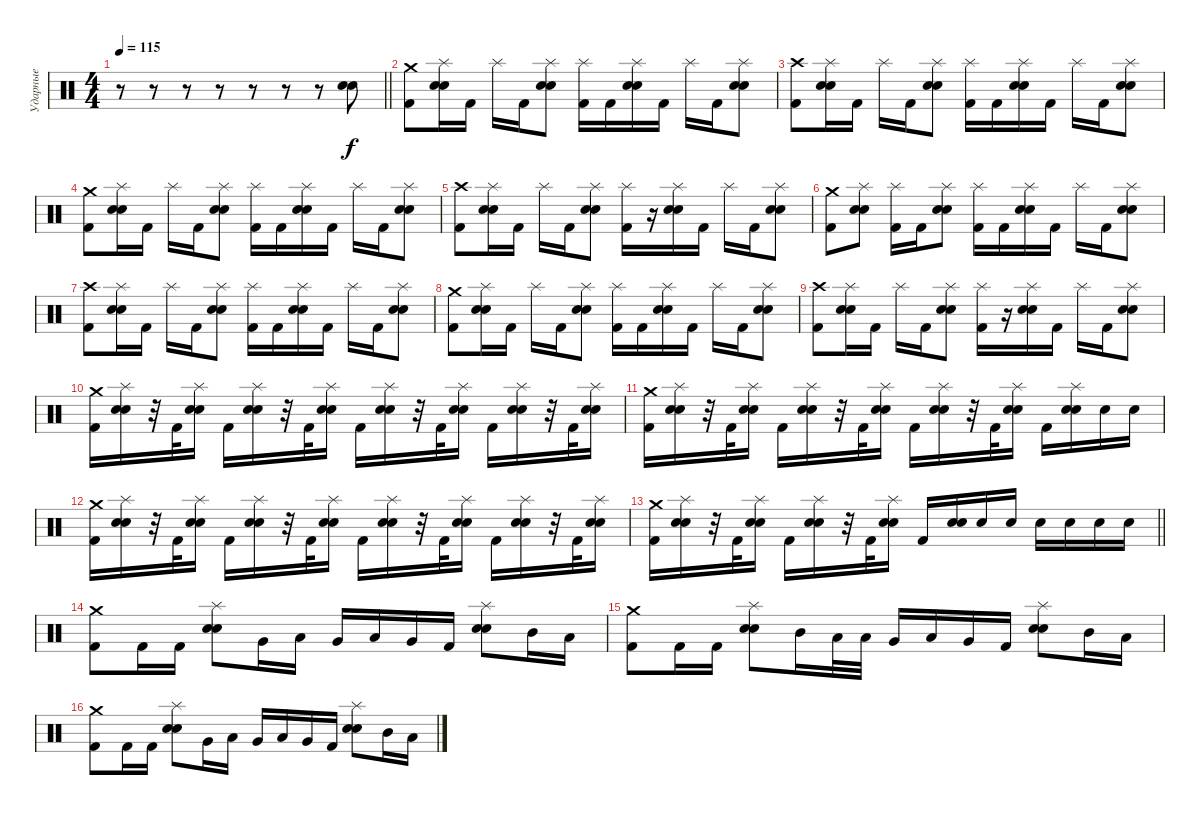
\track ("Ударные" "Ударные") {instrument percussion}
\staff {score}
\articulation defaults
\ts (4 4)
\tempo 115
\clef neutral
\barLineRight lightlight
\ks c
r.8{dy f} r.8 r.8 r.8 r.8 r.8 r.8 ("Electric Snare (hit)" "Snare (hit) 2").8 |
("Crash medium (hit)" "Kick (hit) 2").8 ("Splash (hit)" "Electric Snare (hit)" "Snare (hit) 2").16 "Kick (hit) 2".16 "Splash (hit)".16 "Kick (hit) 2".16 ("Splash (hit)" "Electric Snare (hit)" "Snare (hit) 2").8 ("Splash (hit)" "Kick (hit) 2").16 "Kick (hit) 2".16 ("Splash (hit)" "Electric Snare (hit)" "Snare (hit) 2").16 "Kick (hit) 2".16 "Splash (hit)".16 "Kick (hit) 2".16 ("Splash (hit)" "Electric Snare (hit)" "Snare (hit) 2").8 |
("Crash high (hit)" "Kick (hit) 2").8 ("Splash (hit)" "Electric Snare (hit)" "Snare (hit) 2").16 "Kick (hit) 2".16 "Splash (hit)".16 "Kick (hit) 2".16 ("Splash (hit)" "Electric Snare (hit)" "Snare (hit) 2").8 ("Splash (hit)" "Kick (hit) 2").16 "Kick (hit) 2".16 ("Splash (hit)" "Electric Snare (hit)" "Snare (hit) 2").16 "Kick (hit) 2".16 "Splash (hit)".16 "Kick (hit) 2".16 ("Splash (hit)" "Electric Snare (hit)" "Snare (hit) 2").8 |
("Crash medium (hit)" "Kick (hit) 2").8 ("Splash (hit)" "Electric Snare (hit)" "Snare (hit) 2").16 "Kick (hit) 2".16 "Splash (hit)".16 "Kick (hit) 2".16 ("Splash (hit)" "Electric Snare (hit)" "Snare (hit) 2").8 ("Splash (hit)" "Kick (hit) 2").16 "Kick (hit) 2".16 ("Splash (hit)" "Electric Snare (hit)" "Snare (hit) 2").16 "Kick (hit) 2".16 "Splash (hit)".16 "Kick (hit) 2".16 ("Splash (hit)" "Electric Snare (hit)" "Snare (hit) 2").8 |
("Crash high (hit)" "Kick (hit) 2").8 ("Splash (hit)" "Electric Snare (hit)" "Snare (hit) 2").16 "Kick (hit) 2".16 "Splash (hit)".16 "Kick (hit) 2".16 ("Splash (hit)" "Electric Snare (hit)" "Snare (hit) 2").8 ("Splash (hit)" "Kick (hit) 2").16 r.16 ("Splash (hit)" "Electric Snare (hit)" "Snare (hit) 2").16 "Kick (hit) 2".16 "Splash (hit)".16 "Kick (hit) 2".16 ("Splash (hit)" "Electric Snare (hit)" "Snare (hit) 2").8 |
("Crash medium (hit)" "Kick (hit) 2").8 ("Splash (hit)" "Electric Snare (hit)" "Snare (hit) 2").8 ("Splash (hit)" "Kick (hit) 2").16 "Kick (hit) 2".16 ("Splash (hit)" "Electric Snare (hit)" "Snare (hit) 2").8 ("Splash (hit)" "Kick (hit) 2").16 "Kick (hit) 2".16 ("Splash (hit)" "Electric Snare (hit)" "Snare (hit) 2").16 "Kick (hit) 2".16 "Splash (hit)".16 "Kick (hit) 2".16 ("Splash (hit)" "Electric Snare (hit)" "Snare (hit) 2").8 |
("Crash high (hit)" "Kick (hit) 2").8 ("Splash (hit)" "Electric Snare (hit)" "Snare (hit) 2").16 "Kick (hit) 2".16 "Splash (hit)".16 "Kick (hit) 2".16 ("Splash (hit)" "Electric Snare (hit)" "Snare (hit) 2").8 ("Splash (hit)" "Kick (hit) 2").16 "Kick (hit) 2".16 ("Splash (hit)" "Electric Snare (hit)" "Snare (hit) 2").16 "Kick (hit) 2".16 "Splash (hit)".16 "Kick (hit) 2".16 ("Splash (hit)" "Electric Snare (hit)" "Snare (hit) 2").8 |
("Crash medium (hit)" "Kick (hit) 2").8 ("Splash (hit)" "Electric Snare (hit)" "Snare (hit) 2").16 "Kick (hit) 2".16 "Splash (hit)".16 "Kick (hit) 2".16 ("Splash (hit)" "Electric Snare (hit)" "Snare (hit) 2").8 ("Splash (hit)" "Kick (hit) 2").16 "Kick (hit) 2".16 ("Splash (hit)" "Electric Snare (hit)" "Snare (hit) 2").16 "Kick (hit) 2".16 "Splash (hit)".16 "Kick (hit) 2".16 ("Splash (hit)" "Electric Snare (hit)" "Snare (hit) 2").8 |
("Crash high (hit)" "Kick (hit) 2").8 ("Splash (hit)" "Electric Snare (hit)" "Snare (hit) 2").16 "Kick (hit) 2".16 "Splash (hit)".16 "Kick (hit) 2".16 ("Splash (hit)" "Electric Snare (hit)" "Snare (hit) 2").8 ("Splash (hit)" "Kick (hit) 2").16 r.16 ("Splash (hit)" "Electric Snare (hit)" "Snare (hit) 2").16 "Kick (hit) 2".16 "Splash (hit)".16 "Kick (hit) 2".16 ("Splash (hit)" "Electric Snare (hit)" "Snare (hit) 2").8 |
("Crash medium (hit)" "Kick (hit) 2").16 ("Splash (hit)" "Electric Snare (hit)" "Snare (hit) 2").16 r.32 "Kick (hit) 2".32 ("Splash (hit)" "Electric Snare (hit)" "Snare (hit) 2").16 "Kick (hit) 2".16 ("Splash (hit)" "Electric Snare (hit)" "Snare (hit) 2").16 r.32 "Kick (hit) 2".32 ("Splash (hit)" "Electric Snare (hit)" "Snare (hit) 2").16 "Kick (hit) 2".16 ("Splash (hit)" "Electric Snare (hit)" "Snare (hit) 2").16 r.32 "Kick (hit) 2".32 ("Splash (hit)" "Electric Snare (hit)" "Snare (hit) 2").16 "Kick (hit) 2".16 ("Splash (hit)" "Electric Snare (hit)" "Snare (hit) 2").16 r.32 "Kick (hit) 2".32 ("Splash (hit)" "Electric Snare (hit)" "Snare (hit) 2").16 |
("Crash medium (hit)" "Kick (hit) 2").16 ("Splash (hit)" "Electric Snare (hit)" "Snare (hit) 2").16 r.32 "Kick (hit) 2".32 ("Splash (hit)" "Electric Snare (hit)" "Snare (hit) 2").16 "Kick (hit) 2".16 ("Splash (hit)" "Electric Snare (hit)" "Snare (hit) 2").16 r.32 "Kick (hit) 2".32 ("Splash (hit)" "Electric Snare (hit)" "Snare (hit) 2").16 "Kick (hit) 2".16 ("Splash (hit)" "Electric Snare (hit)" "Snare (hit) 2").16 r.32 "Kick (hit) 2".32 ("Splash (hit)" "Electric Snare (hit)" "Snare (hit) 2").16 "Kick (hit) 2".16 ("Splash (hit)" "Electric Snare (hit)" "Snare (hit) 2").16 "Electric Snare (hit)".16 "Electric Snare (hit)".16 |
("Crash medium (hit)" "Kick (hit) 2").16 ("Splash (hit)" "Electric Snare (hit)" "Snare (hit) 2").16 r.32 "Kick (hit) 2".32 ("Splash (hit)" "Electric Snare (hit)" "Snare (hit) 2").16 "Kick (hit) 2".16 ("Splash (hit)" "Electric Snare (hit)" "Snare (hit) 2").16 r.32 "Kick (hit) 2".32 ("Splash (hit)" "Electric Snare (hit)" "Snare (hit) 2").16 "Kick (hit) 2".16 ("Splash (hit)" "Electric Snare (hit)" "Snare (hit) 2").16 r.32 "Kick (hit) 2".32 ("Splash (hit)" "Electric Snare (hit)" "Snare (hit) 2").16 "Kick (hit) 2".16 ("Splash (hit)" "Electric Snare (hit)" "Snare (hit) 2").16 r.32 "Kick (hit) 2".32 ("Splash (hit)" "Electric Snare (hit)" "Snare (hit) 2").16 |
\barLineRight lightlight
("Crash medium (hit)" "Kick (hit) 2").16 ("Splash (hit)" "Electric Snare (hit)" "Snare (hit) 2").16 r.32 "Kick (hit) 2".32 ("Splash (hit)" "Electric Snare (hit)" "Snare (hit) 2").16 "Kick (hit) 2".16 ("Splash (hit)" "Electric Snare (hit)" "Snare (hit) 2").16 r.32 "Kick (hit) 2".32 ("Splash (hit)" "Electric Snare (hit)" "Snare (hit) 2").16 "Kick (hit) 2".16 ("Electric Snare (hit)" "Snare (hit) 2").16 "Electric Snare (hit)".16 "Electric Snare (hit)".16 "Electric Snare (hit)".16 "Electric Snare (hit)".16 "Electric Snare (hit)".16 "Electric Snare (hit)".16 |
("Crash medium (hit)" "Kick (hit) 2").8 "Kick (hit) 2".16 "Kick (hit) 2".16 ("Splash (hit)" "Electric Snare (hit)" "Snare (hit) 2").8 "Very Low Tom (hit)".16 "Low Tom (hit)".16 "Very Low Tom (hit)".16 "Low Tom (hit)".16 "Very Low Tom (hit)".16 "Kick (hit) 2".16 ("Splash (hit)" "Electric Snare (hit)" "Snare (hit) 2").8 "Mid Tom (hit)".16 "Low Tom (hit)".16 |
("Crash medium (hit)" "Kick (hit) 2").8 "Kick (hit) 2".16 "Kick (hit) 2".16 ("Splash (hit)" "Electric Snare (hit)" "Snare (hit) 2").8 "Mid Tom (hit)".16 "Low Tom (hit)".32 "Low Tom (hit)".32 "Very Low Tom (hit)".16 "Low Tom (hit)".16 "Very Low Tom (hit)".16 "Kick (hit) 2".16 ("Splash (hit)" "Electric Snare (hit)" "Snare (hit) 2").8 "Mid Tom (hit)".16 "Low Tom (hit)".16 |
("Crash medium (hit)" "Kick (hit) 2").8 "Kick (hit) 2".16 "Kick (hit) 2".16 ("Splash (hit)" "Electric Snare (hit)" "Snare (hit) 2").8 "Very Low Tom (hit)".16 "Low Tom (hit)".16 "Very Low Tom (hit)".16 "Low Tom (hit)".16 "Very Low Tom (hit)".16 "Kick (hit) 2".16 ("Splash (hit)" "Electric Snare (hit)" "Snare (hit) 2").8 "Mid Tom (hit)".16 "Low Tom (hit)".16
